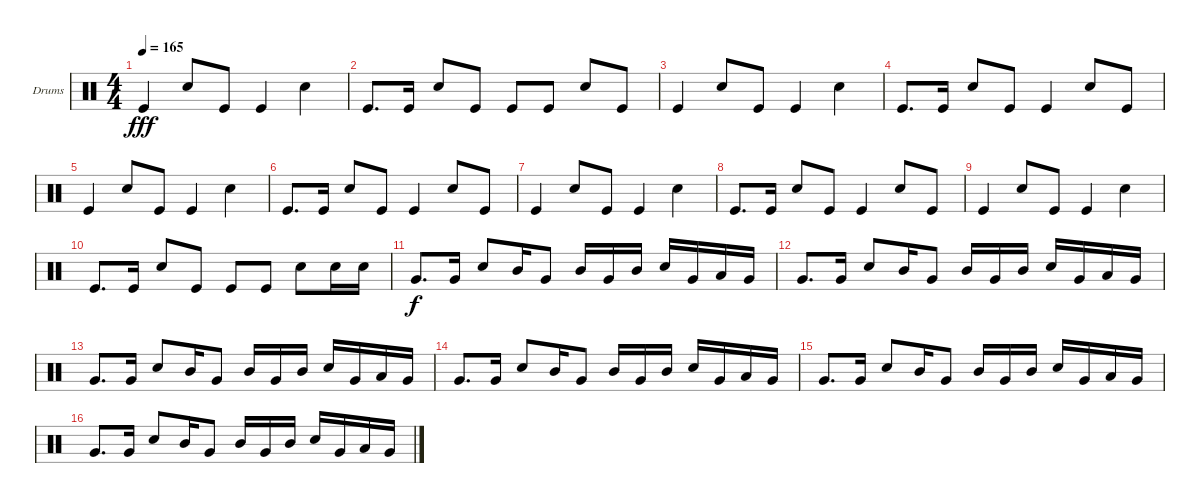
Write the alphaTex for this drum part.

\defaultSystemsLayout 4
\bracketExtendMode groupsimilarinstruments
\firstSystemTrackNameOrientation horizontal
\otherSystemsTrackNameOrientation horizontal
\track ("Helders" "Drums") {instrument percussion}
\staff {score}
\articulation defaults
\ts (4 4)
\tempo 165
\clef neutral
\ks c "Kick (hit)".4{dy fff} "Snare (hit) 2".8 "Kick (hit)".8 "Kick (hit)".4 "Snare (hit) 2".4
|
"Kick (hit)".8{d} "Kick (hit)".16 "Snare (hit) 2".8 "Kick (hit)".8 "Kick (hit)".8 "Kick (hit)".8 "Snare (hit) 2".8 "Kick (hit)".8 |
"Kick (hit)".4 "Snare (hit) 2".8 "Kick (hit)".8 "Kick (hit)".4 "Snare (hit) 2".4 |
"Kick (hit)".8{d} "Kick (hit)".16 "Snare (hit) 2".8 "Kick (hit)".8 "Kick (hit)".4 "Snare (hit) 2".8 "Kick (hit)".8 |
"Kick (hit)".4 "Snare (hit) 2".8 "Kick (hit)".8 "Kick (hit)".4 "Snare (hit) 2".4 |
"Kick (hit)".8{d} "Kick (hit)".16 "Snare (hit) 2".8 "Kick (hit)".8 "Kick (hit)".4 "Snare (hit) 2".8 "Kick (hit)".8 |
"Kick (hit)".4 "Snare (hit) 2".8 "Kick (hit)".8 "Kick (hit)".4 "Snare (hit) 2".4 |
"Kick (hit)".8{d} "Kick (hit)".16 "Snare (hit) 2".8 "Kick (hit)".8 "Kick (hit)".4 "Snare (hit) 2".8 "Kick (hit)".8 |
"Kick (hit)".4 "Snare (hit) 2".8 "Kick (hit)".8 "Kick (hit)".4 "Snare (hit) 2".4 |
"Kick (hit)".8{d} "Kick (hit)".16 "Snare (hit) 2".8 "Kick (hit)".8 "Kick (hit)".8 "Kick (hit)".8 "Snare (hit) 2".8 "Snare (hit) 2".16 "Snare (hit) 2".16 |
"Very Low Tom (hit)".8{d dy f} "Very Low Tom (hit)".16 "Snare (hit) 2".8 "Mid Tom (hit)".16 "Very Low Tom (hit)".8 "Mid Tom (hit)".16 "Very Low Tom (hit)".16 "Mid Tom (hit)".16 "Snare (hit) 2".16 "Very Low Tom (hit)".16 "Low Tom (hit)".16 "Very Low Tom (hit)".16 |
"Very Low Tom (hit)".8{d} "Very Low Tom (hit)".16 "Snare (hit) 2".8 "Mid Tom (hit)".16 "Very Low Tom (hit)".8 "Mid Tom (hit)".16 "Very Low Tom (hit)".16 "Mid Tom (hit)".16 "Snare (hit) 2".16 "Very Low Tom (hit)".16 "Low Tom (hit)".16 "Very Low Tom (hit)".16 |
"Very Low Tom (hit)".8{d} "Very Low Tom (hit)".16 "Snare (hit) 2".8 "Mid Tom (hit)".16 "Very Low Tom (hit)".8 "Mid Tom (hit)".16 "Very Low Tom (hit)".16 "Mid Tom (hit)".16 "Snare (hit) 2".16 "Very Low Tom (hit)".16 "Low Tom (hit)".16 "Very Low Tom (hit)".16 |
"Very Low Tom (hit)".8{d} "Very Low Tom (hit)".16 "Snare (hit) 2".8 "Mid Tom (hit)".16 "Very Low Tom (hit)".8 "Mid Tom (hit)".16 "Very Low Tom (hit)".16 "Mid Tom (hit)".16 "Snare (hit) 2".16 "Very Low Tom (hit)".16 "Low Tom (hit)".16 "Very Low Tom (hit)".16 |
"Very Low Tom (hit)".8{d} "Very Low Tom (hit)".16 "Snare (hit) 2".8 "Mid Tom (hit)".16 "Very Low Tom (hit)".8 "Mid Tom (hit)".16 "Very Low Tom (hit)".16 "Mid Tom (hit)".16 "Snare (hit) 2".16 "Very Low Tom (hit)".16 "Low Tom (hit)".16 "Very Low Tom (hit)".16 |
"Very Low Tom (hit)".8{d} "Very Low Tom (hit)".16 "Snare (hit) 2".8 "Mid Tom (hit)".16 "Very Low Tom (hit)".8 "Mid Tom (hit)".16 "Very Low Tom (hit)".16 "Mid Tom (hit)".16 "Snare (hit) 2".16 "Very Low Tom (hit)".16 "Low Tom (hit)".16 "Very Low Tom (hit)".16
